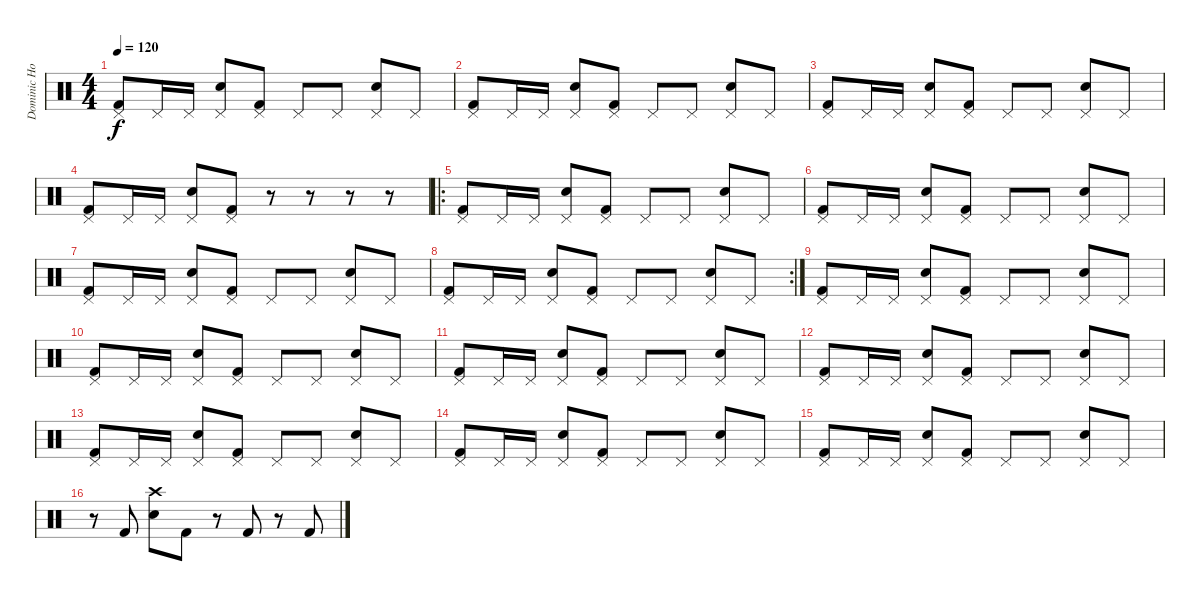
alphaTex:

\track ("Dominic Howard" "Dominic Ho") {instrument percussion}
\staff {score}
\articulation defaults
\ts (4 4)
\tempo 120
\clef neutral
\ks c
("Pedal Hi-Hat (hit)" "Kick (hit) 2").8{dy f} "Pedal Hi-Hat (hit)".16 "Pedal Hi-Hat (hit)".16 ("Pedal Hi-Hat (hit)" "Snare (hit) 2").8 ("Pedal Hi-Hat (hit)" "Kick (hit) 2").8 "Pedal Hi-Hat (hit)".8 "Pedal Hi-Hat (hit)".8 ("Pedal Hi-Hat (hit)" "Snare (hit) 2").8 "Pedal Hi-Hat (hit)".8 |
("Pedal Hi-Hat (hit)" "Kick (hit) 2").8 "Pedal Hi-Hat (hit)".16 "Pedal Hi-Hat (hit)".16 ("Pedal Hi-Hat (hit)" "Snare (hit) 2").8 ("Pedal Hi-Hat (hit)" "Kick (hit) 2").8 "Pedal Hi-Hat (hit)".8 "Pedal Hi-Hat (hit)".8 ("Pedal Hi-Hat (hit)" "Snare (hit) 2").8 "Pedal Hi-Hat (hit)".8 |
("Pedal Hi-Hat (hit)" "Kick (hit) 2").8 "Pedal Hi-Hat (hit)".16 "Pedal Hi-Hat (hit)".16 ("Pedal Hi-Hat (hit)" "Snare (hit) 2").8 ("Pedal Hi-Hat (hit)" "Kick (hit) 2").8 "Pedal Hi-Hat (hit)".8 "Pedal Hi-Hat (hit)".8 ("Pedal Hi-Hat (hit)" "Snare (hit) 2").8 "Pedal Hi-Hat (hit)".8 |
("Pedal Hi-Hat (hit)" "Kick (hit) 2").8 "Pedal Hi-Hat (hit)".16 "Pedal Hi-Hat (hit)".16 ("Pedal Hi-Hat (hit)" "Snare (hit) 2").8 ("Pedal Hi-Hat (hit)" "Kick (hit) 2").8 r.8 r.8 r.8 r.8 |
\ro
("Pedal Hi-Hat (hit)" "Kick (hit) 2").8 "Pedal Hi-Hat (hit)".16 "Pedal Hi-Hat (hit)".16 ("Pedal Hi-Hat (hit)" "Snare (hit) 2").8 ("Pedal Hi-Hat (hit)" "Kick (hit) 2").8 "Pedal Hi-Hat (hit)".8 "Pedal Hi-Hat (hit)".8 ("Pedal Hi-Hat (hit)" "Snare (hit) 2").8 "Pedal Hi-Hat (hit)".8 |
("Pedal Hi-Hat (hit)" "Kick (hit) 2").8 "Pedal Hi-Hat (hit)".16 "Pedal Hi-Hat (hit)".16 ("Pedal Hi-Hat (hit)" "Snare (hit) 2").8 ("Pedal Hi-Hat (hit)" "Kick (hit) 2").8 "Pedal Hi-Hat (hit)".8 "Pedal Hi-Hat (hit)".8 ("Pedal Hi-Hat (hit)" "Snare (hit) 2").8 "Pedal Hi-Hat (hit)".8 |
("Pedal Hi-Hat (hit)" "Kick (hit) 2").8 "Pedal Hi-Hat (hit)".16 "Pedal Hi-Hat (hit)".16 ("Pedal Hi-Hat (hit)" "Snare (hit) 2").8 ("Pedal Hi-Hat (hit)" "Kick (hit) 2").8 "Pedal Hi-Hat (hit)".8 "Pedal Hi-Hat (hit)".8 ("Pedal Hi-Hat (hit)" "Snare (hit) 2").8 "Pedal Hi-Hat (hit)".8 |
\rc 2
("Pedal Hi-Hat (hit)" "Kick (hit) 2").8 "Pedal Hi-Hat (hit)".16 "Pedal Hi-Hat (hit)".16 ("Pedal Hi-Hat (hit)" "Snare (hit) 2").8 ("Pedal Hi-Hat (hit)" "Kick (hit) 2").8 "Pedal Hi-Hat (hit)".8 "Pedal Hi-Hat (hit)".8 ("Pedal Hi-Hat (hit)" "Snare (hit) 2").8 "Pedal Hi-Hat (hit)".8 |
("Pedal Hi-Hat (hit)" "Kick (hit) 2").8 "Pedal Hi-Hat (hit)".16 "Pedal Hi-Hat (hit)".16 ("Pedal Hi-Hat (hit)" "Snare (hit) 2").8 ("Pedal Hi-Hat (hit)" "Kick (hit) 2").8 "Pedal Hi-Hat (hit)".8 "Pedal Hi-Hat (hit)".8 ("Pedal Hi-Hat (hit)" "Snare (hit) 2").8 "Pedal Hi-Hat (hit)".8 |
("Pedal Hi-Hat (hit)" "Kick (hit) 2").8 "Pedal Hi-Hat (hit)".16 "Pedal Hi-Hat (hit)".16 ("Pedal Hi-Hat (hit)" "Snare (hit) 2").8 ("Pedal Hi-Hat (hit)" "Kick (hit) 2").8 "Pedal Hi-Hat (hit)".8 "Pedal Hi-Hat (hit)".8 ("Pedal Hi-Hat (hit)" "Snare (hit) 2").8 "Pedal Hi-Hat (hit)".8 |
("Pedal Hi-Hat (hit)" "Kick (hit) 2").8 "Pedal Hi-Hat (hit)".16 "Pedal Hi-Hat (hit)".16 ("Pedal Hi-Hat (hit)" "Snare (hit) 2").8 ("Pedal Hi-Hat (hit)" "Kick (hit) 2").8 "Pedal Hi-Hat (hit)".8 "Pedal Hi-Hat (hit)".8 ("Pedal Hi-Hat (hit)" "Snare (hit) 2").8 "Pedal Hi-Hat (hit)".8 |
("Pedal Hi-Hat (hit)" "Kick (hit) 2").8 "Pedal Hi-Hat (hit)".16 "Pedal Hi-Hat (hit)".16 ("Pedal Hi-Hat (hit)" "Snare (hit) 2").8 ("Pedal Hi-Hat (hit)" "Kick (hit) 2").8 "Pedal Hi-Hat (hit)".8 "Pedal Hi-Hat (hit)".8 ("Pedal Hi-Hat (hit)" "Snare (hit) 2").8 "Pedal Hi-Hat (hit)".8 |
("Pedal Hi-Hat (hit)" "Kick (hit) 2").8 "Pedal Hi-Hat (hit)".16 "Pedal Hi-Hat (hit)".16 ("Pedal Hi-Hat (hit)" "Snare (hit) 2").8 ("Pedal Hi-Hat (hit)" "Kick (hit) 2").8 "Pedal Hi-Hat (hit)".8 "Pedal Hi-Hat (hit)".8 ("Pedal Hi-Hat (hit)" "Snare (hit) 2").8 "Pedal Hi-Hat (hit)".8 |
("Pedal Hi-Hat (hit)" "Kick (hit) 2").8 "Pedal Hi-Hat (hit)".16 "Pedal Hi-Hat (hit)".16 ("Pedal Hi-Hat (hit)" "Snare (hit) 2").8 ("Pedal Hi-Hat (hit)" "Kick (hit) 2").8 "Pedal Hi-Hat (hit)".8 "Pedal Hi-Hat (hit)".8 ("Pedal Hi-Hat (hit)" "Snare (hit) 2").8 "Pedal Hi-Hat (hit)".8 |
("Pedal Hi-Hat (hit)" "Kick (hit) 2").8 "Pedal Hi-Hat (hit)".16 "Pedal Hi-Hat (hit)".16 ("Pedal Hi-Hat (hit)" "Snare (hit) 2").8 ("Pedal Hi-Hat (hit)" "Kick (hit) 2").8 "Pedal Hi-Hat (hit)".8 "Pedal Hi-Hat (hit)".8 ("Pedal Hi-Hat (hit)" "Snare (hit) 2").8 "Pedal Hi-Hat (hit)".8 |
r.8 "Kick (hit) 2".8 ("Crash high (hit)" "Snare (hit) 2").8 "Kick (hit) 2".8 r.8 "Kick (hit) 2".8 r.8 "Kick (hit) 2".8
